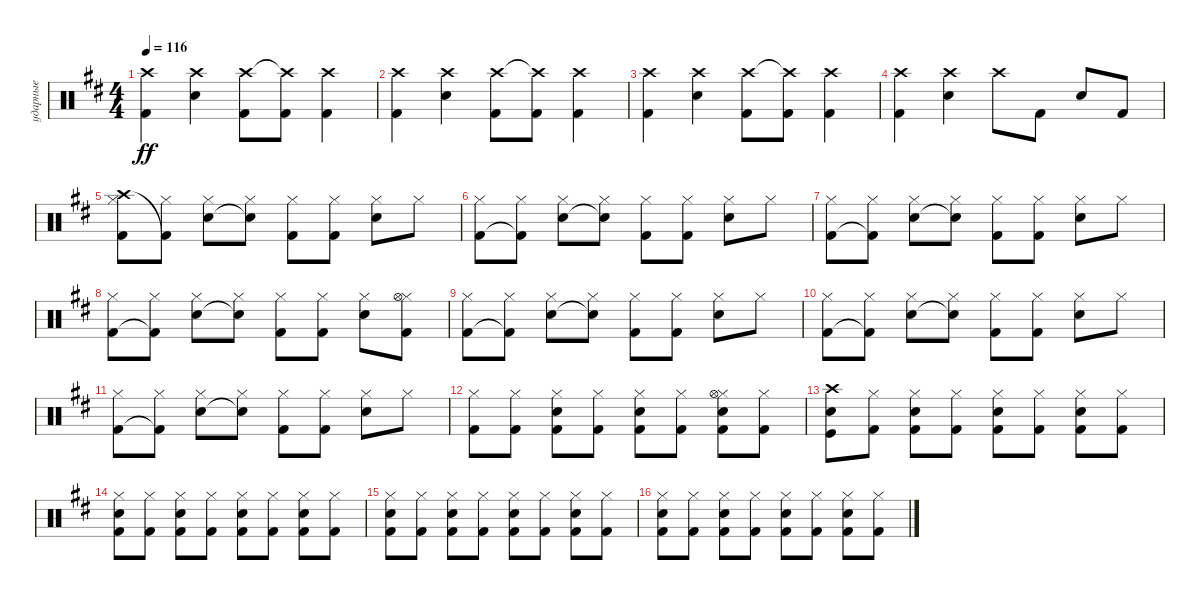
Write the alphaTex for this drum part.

\track ("ударные" "ударные") {instrument percussion}
\staff {score}
\articulation defaults
\ts (4 4)
\tempo 116
\clef neutral
\ks d
("Crash high (hit)" "Kick (hit) 2").4{dy ff} ("Crash high (hit)" "Snare (hit) 2").4 ("Crash high (hit)" "Kick (hit) 2").8 ("Crash high (hit)"{t} "Kick (hit) 2").8 ("Crash high (hit)" "Kick (hit) 2").4 |
("Crash high (hit)" "Kick (hit) 2").4 ("Crash high (hit)" "Snare (hit) 2").4 ("Crash high (hit)" "Kick (hit) 2").8 ("Crash high (hit)"{t} "Kick (hit) 2").8 ("Crash high (hit)" "Kick (hit) 2").4 |
("Crash high (hit)" "Kick (hit) 2").4 ("Crash high (hit)" "Snare (hit) 2").4 ("Crash high (hit)" "Kick (hit) 2").8 ("Crash high (hit)"{t} "Kick (hit) 2").8 ("Crash high (hit)" "Kick (hit) 2").4 |
("Crash high (hit)" "Kick (hit) 2").4 ("Crash high (hit)" "Snare (hit) 2").4 "Crash high (hit)".8 "Kick (hit) 2".8 "Snare (hit) 2".8 "Kick (hit) 2".8 |
("Hi-Hat (closed)" "Crash high (hit)" "Kick (hit) 2").8 ("Hi-Hat (closed)" "Kick (hit) 2"{t}).8 ("Hi-Hat (closed)" "Snare (hit) 2").8 ("Hi-Hat (closed)" "Snare (hit) 2"{t}).8 ("Hi-Hat (closed)" "Kick (hit) 2").8 ("Hi-Hat (closed)" "Kick (hit) 2").8 ("Hi-Hat (closed)" "Snare (hit) 2").8 "Hi-Hat (closed)".8 |
("Hi-Hat (closed)" "Kick (hit) 2").8 ("Hi-Hat (closed)" "Kick (hit) 2"{t}).8 ("Hi-Hat (closed)" "Snare (hit) 2").8 ("Hi-Hat (closed)" "Snare (hit) 2"{t}).8 ("Hi-Hat (closed)" "Kick (hit) 2").8 ("Hi-Hat (closed)" "Kick (hit) 2").8 ("Hi-Hat (closed)" "Snare (hit) 2").8 "Hi-Hat (closed)".8 |
("Hi-Hat (closed)" "Kick (hit) 2").8 ("Hi-Hat (closed)" "Kick (hit) 2"{t}).8 ("Hi-Hat (closed)" "Snare (hit) 2").8 ("Hi-Hat (closed)" "Snare (hit) 2"{t}).8 ("Hi-Hat (closed)" "Kick (hit) 2").8 ("Hi-Hat (closed)" "Kick (hit) 2").8 ("Hi-Hat (closed)" "Snare (hit) 2").8 "Hi-Hat (closed)".8 |
("Hi-Hat (closed)" "Kick (hit) 2").8 ("Hi-Hat (closed)" "Kick (hit) 2"{t}).8 ("Hi-Hat (closed)" "Snare (hit) 2").8 ("Hi-Hat (closed)" "Snare (hit) 2"{t}).8 ("Hi-Hat (closed)" "Kick (hit) 2").8 ("Hi-Hat (closed)" "Kick (hit) 2").8 ("Hi-Hat (closed)" "Snare (hit) 2").8 ("Hi-Hat (closed)" "Hi-Hat (open)" "Kick (hit) 2").8 |
("Hi-Hat (closed)" "Kick (hit) 2").8 ("Hi-Hat (closed)" "Kick (hit) 2"{t}).8 ("Hi-Hat (closed)" "Snare (hit) 2").8 ("Hi-Hat (closed)" "Snare (hit) 2"{t}).8 ("Hi-Hat (closed)" "Kick (hit) 2").8 ("Hi-Hat (closed)" "Kick (hit) 2").8 ("Hi-Hat (closed)" "Snare (hit) 2").8 "Hi-Hat (closed)".8 |
("Hi-Hat (closed)" "Kick (hit) 2").8 ("Hi-Hat (closed)" "Kick (hit) 2"{t}).8 ("Hi-Hat (closed)" "Snare (hit) 2").8 ("Hi-Hat (closed)" "Snare (hit) 2"{t}).8 ("Hi-Hat (closed)" "Kick (hit) 2").8 ("Hi-Hat (closed)" "Kick (hit) 2").8 ("Hi-Hat (closed)" "Snare (hit) 2").8 "Hi-Hat (closed)".8 |
("Hi-Hat (closed)" "Kick (hit) 2").8 ("Hi-Hat (closed)" "Kick (hit) 2"{t}).8 ("Hi-Hat (closed)" "Snare (hit) 2").8 ("Hi-Hat (closed)" "Snare (hit) 2"{t}).8 ("Hi-Hat (closed)" "Kick (hit) 2").8 ("Hi-Hat (closed)" "Kick (hit) 2").8 ("Hi-Hat (closed)" "Snare (hit) 2").8 "Hi-Hat (closed)".8 |
("Hi-Hat (closed)" "Kick (hit) 2").8 ("Hi-Hat (closed)" "Kick (hit) 2").8 ("Hi-Hat (closed)" "Snare (hit) 2" "Kick (hit) 2").8 ("Hi-Hat (closed)" "Kick (hit) 2").8 ("Hi-Hat (closed)" "Snare (hit) 2" "Kick (hit) 2").8 ("Hi-Hat (closed)" "Kick (hit) 2").8 ("Hi-Hat (closed)" "Hi-Hat (open)" "Snare (hit) 2" "Kick (hit) 2").8 ("Hi-Hat (closed)" "Kick (hit) 2").8 |
("Kick (hit)" "Snare (hit) 2" "Crash high (hit)").8 ("Hi-Hat (closed)" "Kick (hit) 2").8 ("Hi-Hat (closed)" "Snare (hit) 2" "Kick (hit) 2").8 ("Hi-Hat (closed)" "Kick (hit) 2").8 ("Hi-Hat (closed)" "Snare (hit) 2" "Kick (hit) 2").8 ("Hi-Hat (closed)" "Kick (hit) 2").8 ("Hi-Hat (closed)" "Snare (hit) 2" "Kick (hit) 2").8 ("Hi-Hat (closed)" "Kick (hit) 2").8 |
("Hi-Hat (closed)" "Snare (hit) 2" "Kick (hit) 2").8 ("Hi-Hat (closed)" "Kick (hit) 2").8 ("Hi-Hat (closed)" "Snare (hit) 2" "Kick (hit) 2").8 ("Hi-Hat (closed)" "Kick (hit) 2").8 ("Hi-Hat (closed)" "Snare (hit) 2" "Kick (hit) 2").8 ("Hi-Hat (closed)" "Kick (hit) 2").8 ("Hi-Hat (closed)" "Snare (hit) 2" "Kick (hit) 2").8 ("Hi-Hat (closed)" "Kick (hit) 2").8 |
("Hi-Hat (closed)" "Snare (hit) 2" "Kick (hit) 2").8 ("Hi-Hat (closed)" "Kick (hit) 2").8 ("Hi-Hat (closed)" "Snare (hit) 2" "Kick (hit) 2").8 ("Hi-Hat (closed)" "Kick (hit) 2").8 ("Hi-Hat (closed)" "Snare (hit) 2" "Kick (hit) 2").8 ("Hi-Hat (closed)" "Kick (hit) 2").8 ("Hi-Hat (closed)" "Snare (hit) 2" "Kick (hit) 2").8 ("Hi-Hat (closed)" "Kick (hit) 2").8 |
("Hi-Hat (closed)" "Snare (hit) 2" "Kick (hit) 2").8 ("Hi-Hat (closed)" "Kick (hit) 2").8 ("Hi-Hat (closed)" "Snare (hit) 2" "Kick (hit) 2").8 ("Hi-Hat (closed)" "Kick (hit) 2").8 ("Hi-Hat (closed)" "Snare (hit) 2" "Kick (hit) 2").8 ("Hi-Hat (closed)" "Kick (hit) 2").8 ("Hi-Hat (closed)" "Snare (hit) 2" "Kick (hit) 2").8 ("Hi-Hat (closed)" "Kick (hit) 2").8
